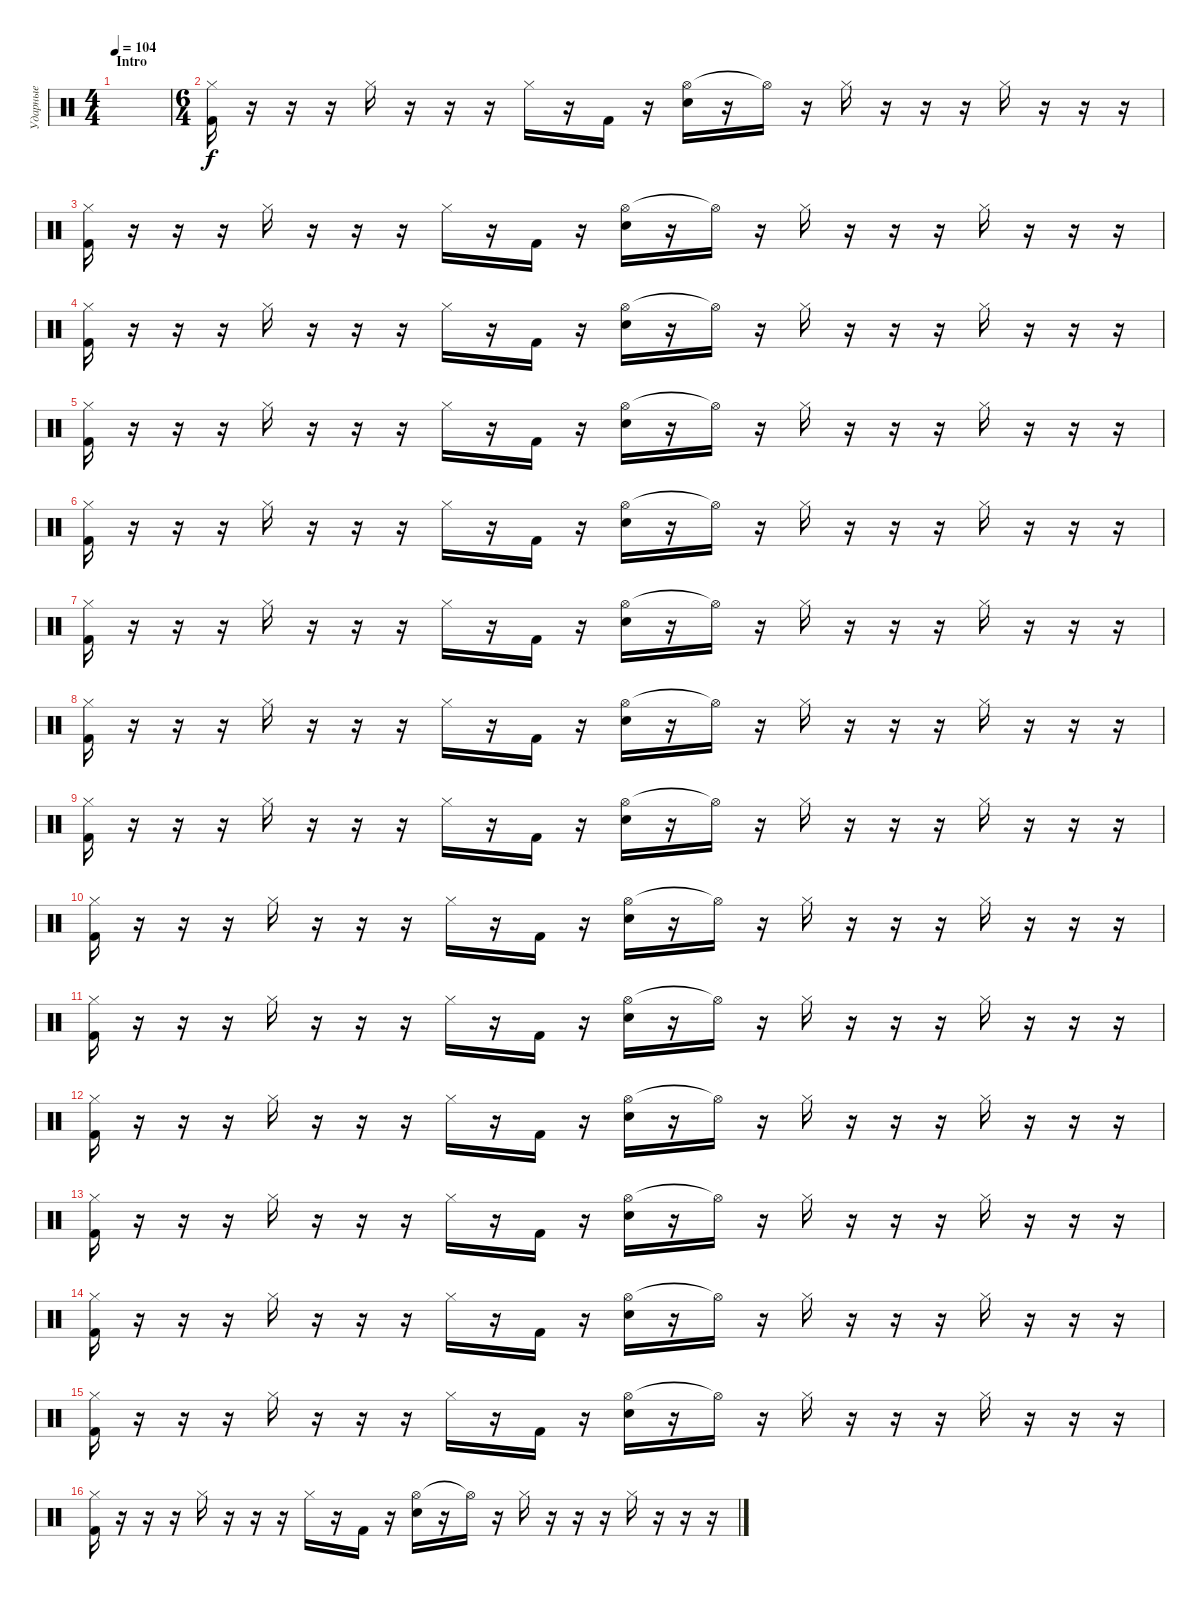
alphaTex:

\track ("Ударные" "Ударные") {instrument percussion}
\staff {score}
\articulation defaults
\ts (4 4)
\section ("" "Intro")
\tempo 104
\clef neutral
\ks c
|
\ts (6 4)
("Hi-Hat (closed)" "Kick (hit) 2").16 r.16 r.16 r.16 "Hi-Hat (closed)".16 r.16 r.16 r.16 "Hi-Hat (closed)".16 r.16 "Kick (hit) 2".16 r.16 ("Hi-Hat (open)" "Electric Snare (hit)").16 r.16 "Hi-Hat (open)"{t}.16 r.16 "Hi-Hat (closed)".16 r.16 r.16 r.16 "Hi-Hat (closed)".16 r.16 r.16 r.16 |
("Hi-Hat (closed)" "Kick (hit) 2").16 r.16 r.16 r.16 "Hi-Hat (closed)".16 r.16 r.16 r.16 "Hi-Hat (closed)".16 r.16 "Kick (hit) 2".16 r.16 ("Hi-Hat (open)" "Electric Snare (hit)").16 r.16 "Hi-Hat (open)"{t}.16 r.16 "Hi-Hat (closed)".16 r.16 r.16 r.16 "Hi-Hat (closed)".16 r.16 r.16 r.16 |
("Hi-Hat (closed)" "Kick (hit) 2").16 r.16 r.16 r.16 "Hi-Hat (closed)".16 r.16 r.16 r.16 "Hi-Hat (closed)".16 r.16 "Kick (hit) 2".16 r.16 ("Hi-Hat (open)" "Electric Snare (hit)").16 r.16 "Hi-Hat (open)"{t}.16 r.16 "Hi-Hat (closed)".16 r.16 r.16 r.16 "Hi-Hat (closed)".16 r.16 r.16 r.16 |
("Hi-Hat (closed)" "Kick (hit) 2").16 r.16 r.16 r.16 "Hi-Hat (closed)".16 r.16 r.16 r.16 "Hi-Hat (closed)".16 r.16 "Kick (hit) 2".16 r.16 ("Hi-Hat (open)" "Electric Snare (hit)").16 r.16 "Hi-Hat (open)"{t}.16 r.16 "Hi-Hat (closed)".16 r.16 r.16 r.16 "Hi-Hat (closed)".16 r.16 r.16 r.16 |
("Hi-Hat (closed)" "Kick (hit) 2").16 r.16 r.16 r.16 "Hi-Hat (closed)".16 r.16 r.16 r.16 "Hi-Hat (closed)".16 r.16 "Kick (hit) 2".16 r.16 ("Hi-Hat (open)" "Electric Snare (hit)").16 r.16 "Hi-Hat (open)"{t}.16 r.16 "Hi-Hat (closed)".16 r.16 r.16 r.16 "Hi-Hat (closed)".16 r.16 r.16 r.16 |
("Hi-Hat (closed)" "Kick (hit) 2").16 r.16 r.16 r.16 "Hi-Hat (closed)".16 r.16 r.16 r.16 "Hi-Hat (closed)".16 r.16 "Kick (hit) 2".16 r.16 ("Hi-Hat (open)" "Electric Snare (hit)").16 r.16 "Hi-Hat (open)"{t}.16 r.16 "Hi-Hat (closed)".16 r.16 r.16 r.16 "Hi-Hat (closed)".16 r.16 r.16 r.16 |
("Hi-Hat (closed)" "Kick (hit) 2").16 r.16 r.16 r.16 "Hi-Hat (closed)".16 r.16 r.16 r.16 "Hi-Hat (closed)".16 r.16 "Kick (hit) 2".16 r.16 ("Hi-Hat (open)" "Electric Snare (hit)").16 r.16 "Hi-Hat (open)"{t}.16 r.16 "Hi-Hat (closed)".16 r.16 r.16 r.16 "Hi-Hat (closed)".16 r.16 r.16 r.16 |
("Hi-Hat (closed)" "Kick (hit) 2").16 r.16 r.16 r.16 "Hi-Hat (closed)".16 r.16 r.16 r.16 "Hi-Hat (closed)".16 r.16 "Kick (hit) 2".16 r.16 ("Hi-Hat (open)" "Electric Snare (hit)").16 r.16 "Hi-Hat (open)"{t}.16 r.16 "Hi-Hat (closed)".16 r.16 r.16 r.16 "Hi-Hat (closed)".16 r.16 r.16 r.16 |
("Hi-Hat (closed)" "Kick (hit) 2").16 r.16 r.16 r.16 "Hi-Hat (closed)".16 r.16 r.16 r.16 "Hi-Hat (closed)".16 r.16 "Kick (hit) 2".16 r.16 ("Hi-Hat (open)" "Electric Snare (hit)").16 r.16 "Hi-Hat (open)"{t}.16 r.16 "Hi-Hat (closed)".16 r.16 r.16 r.16 "Hi-Hat (closed)".16 r.16 r.16 r.16 |
("Hi-Hat (closed)" "Kick (hit) 2").16 r.16 r.16 r.16 "Hi-Hat (closed)".16 r.16 r.16 r.16 "Hi-Hat (closed)".16 r.16 "Kick (hit) 2".16 r.16 ("Hi-Hat (open)" "Electric Snare (hit)").16 r.16 "Hi-Hat (open)"{t}.16 r.16 "Hi-Hat (closed)".16 r.16 r.16 r.16 "Hi-Hat (closed)".16 r.16 r.16 r.16 |
("Hi-Hat (closed)" "Kick (hit) 2").16 r.16 r.16 r.16 "Hi-Hat (closed)".16 r.16 r.16 r.16 "Hi-Hat (closed)".16 r.16 "Kick (hit) 2".16 r.16 ("Hi-Hat (open)" "Electric Snare (hit)").16 r.16 "Hi-Hat (open)"{t}.16 r.16 "Hi-Hat (closed)".16 r.16 r.16 r.16 "Hi-Hat (closed)".16 r.16 r.16 r.16 |
("Hi-Hat (closed)" "Kick (hit) 2").16 r.16 r.16 r.16 "Hi-Hat (closed)".16 r.16 r.16 r.16 "Hi-Hat (closed)".16 r.16 "Kick (hit) 2".16 r.16 ("Hi-Hat (open)" "Electric Snare (hit)").16 r.16 "Hi-Hat (open)"{t}.16 r.16 "Hi-Hat (closed)".16 r.16 r.16 r.16 "Hi-Hat (closed)".16 r.16 r.16 r.16 |
("Hi-Hat (closed)" "Kick (hit) 2").16 r.16 r.16 r.16 "Hi-Hat (closed)".16 r.16 r.16 r.16 "Hi-Hat (closed)".16 r.16 "Kick (hit) 2".16 r.16 ("Hi-Hat (open)" "Electric Snare (hit)").16 r.16 "Hi-Hat (open)"{t}.16 r.16 "Hi-Hat (closed)".16 r.16 r.16 r.16 "Hi-Hat (closed)".16 r.16 r.16 r.16 |
("Hi-Hat (closed)" "Kick (hit) 2").16 r.16 r.16 r.16 "Hi-Hat (closed)".16 r.16 r.16 r.16 "Hi-Hat (closed)".16 r.16 "Kick (hit) 2".16 r.16 ("Hi-Hat (open)" "Electric Snare (hit)").16 r.16 "Hi-Hat (open)"{t}.16 r.16 "Hi-Hat (closed)".16 r.16 r.16 r.16 "Hi-Hat (closed)".16 r.16 r.16 r.16 |
("Hi-Hat (closed)" "Kick (hit) 2").16 r.16 r.16 r.16 "Hi-Hat (closed)".16 r.16 r.16 r.16 "Hi-Hat (closed)".16 r.16 "Kick (hit) 2".16 r.16 ("Hi-Hat (open)" "Electric Snare (hit)").16 r.16 "Hi-Hat (open)"{t}.16 r.16 "Hi-Hat (closed)".16 r.16 r.16 r.16 "Hi-Hat (closed)".16 r.16 r.16 r.16
